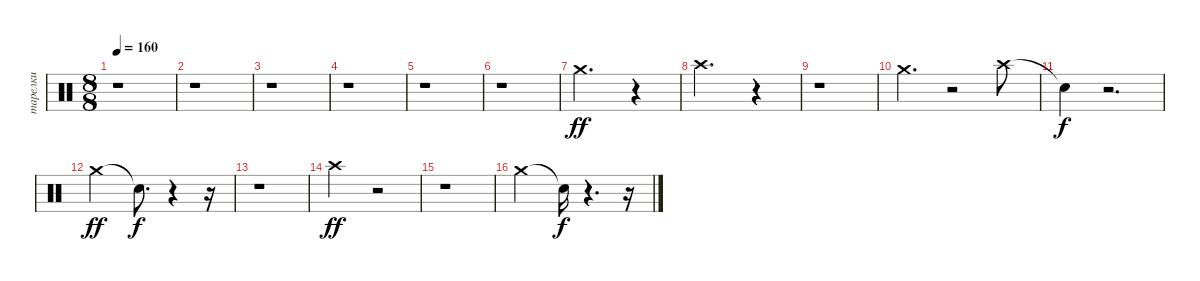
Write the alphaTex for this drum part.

\track ("тарелки" "тарелки") {instrument percussion}
\staff {score}
\articulation defaults
\ts (8 8)
\tempo 160
\clef neutral
\ks c
r.1{dy f} |
r.1 |
r.1 |
r.1 |
r.1 |
r.1 |
"Crash medium (hit)".2{d dy ff} r.4 |
"Crash high (hit)".2{d} r.4 |
r.1 |
"Crash medium (hit)".4{d} r.2 "Crash high (hit)".8 |
"Snare (hit)"{t}.4{dy f} r.2{d} |
"Crash medium (hit)".2{dy ff} "Snare (hit)"{t}.8{d dy f} r.4 r.16 |
r.1 |
"Crash high (hit)".2{dy ff} r.2 |
r.1 |
"Crash medium (hit)".2 "Snare (hit)"{t}.16{dy f} r.4{d} r.16
